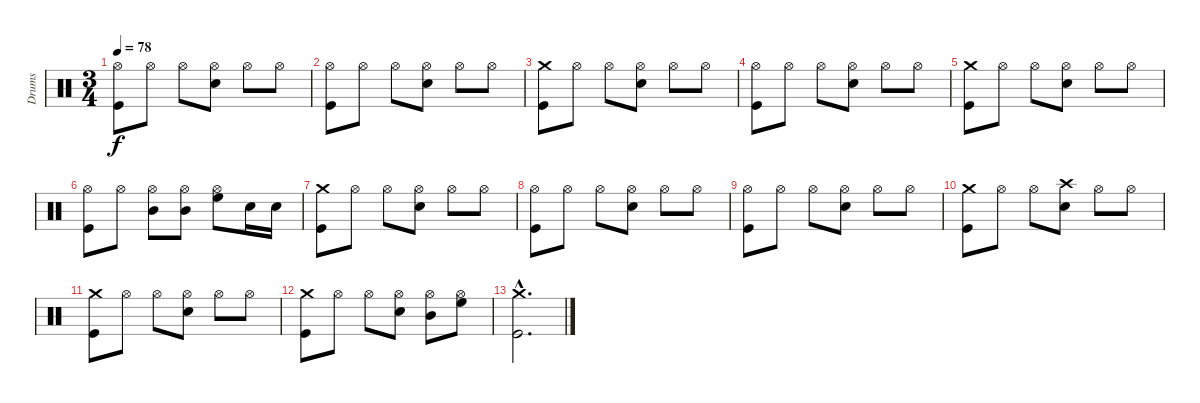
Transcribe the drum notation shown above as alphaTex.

\track ("Drums" "Drums") {instrument percussion}
\staff {score}
\articulation defaults
\ts (3 4)
\tempo 78
\clef neutral
\ks c
("Hi-Hat (open)" "Kick (hit)").8{dy f} "Hi-Hat (open)".8 "Hi-Hat (open)".8 ("Hi-Hat (open)" "Snare (hit) 2").8 "Hi-Hat (open)".8 "Hi-Hat (open)".8 |
("Hi-Hat (open)" "Kick (hit)").8 "Hi-Hat (open)".8 "Hi-Hat (open)".8 ("Hi-Hat (open)" "Snare (hit) 2").8 "Hi-Hat (open)".8 "Hi-Hat (open)".8 |
("Crash medium (hit)" "Kick (hit)").8 "Hi-Hat (open)".8 "Hi-Hat (open)".8 ("Hi-Hat (open)" "Snare (hit) 2").8 "Hi-Hat (open)".8 "Hi-Hat (open)".8 |
("Hi-Hat (open)" "Kick (hit)").8 "Hi-Hat (open)".8 "Hi-Hat (open)".8 ("Hi-Hat (open)" "Snare (hit) 2").8 "Hi-Hat (open)".8 "Hi-Hat (open)".8 |
("Crash medium (hit)" "Kick (hit)").8 "Hi-Hat (open)".8 "Hi-Hat (open)".8 ("Hi-Hat (open)" "Snare (hit) 2").8 "Hi-Hat (open)".8 "Hi-Hat (open)".8 |
("Hi-Hat (open)" "Kick (hit)").8 "Hi-Hat (open)".8 ("Hi-Hat (open)" "Mid Tom (hit)").8 ("Hi-Hat (open)" "Mid Tom (hit)").8 ("Hi-Hat (open)" "High Floor Tom (hit)").8 "Snare (hit) 2".16 "Snare (hit) 2".16 |
("Crash medium (hit)" "Kick (hit)").8 "Hi-Hat (open)".8 "Hi-Hat (open)".8 ("Hi-Hat (open)" "Snare (hit) 2").8 "Hi-Hat (open)".8 "Hi-Hat (open)".8 |
("Hi-Hat (open)" "Kick (hit)").8 "Hi-Hat (open)".8 "Hi-Hat (open)".8 ("Hi-Hat (open)" "Snare (hit) 2").8 "Hi-Hat (open)".8 "Hi-Hat (open)".8 |
("Hi-Hat (open)" "Kick (hit)").8 "Hi-Hat (open)".8 "Hi-Hat (open)".8 ("Hi-Hat (open)" "Snare (hit) 2").8 "Hi-Hat (open)".8 "Hi-Hat (open)".8 |
("Crash medium (hit)" "Kick (hit)").8 "Hi-Hat (open)".8 "Hi-Hat (open)".8 ("Crash high (hit)" "Snare (hit) 2").8 "Hi-Hat (open)".8 "Hi-Hat (open)".8 |
("Crash medium (hit)" "Kick (hit)").8 "Hi-Hat (open)".8 "Hi-Hat (open)".8 ("Hi-Hat (open)" "Snare (hit) 2").8 "Hi-Hat (open)".8 "Hi-Hat (open)".8 |
("Crash medium (hit)" "Kick (hit)").8 "Hi-Hat (open)".8 "Hi-Hat (open)".8 ("Hi-Hat (open)" "Snare (hit) 2").8 ("Hi-Hat (open)" "Mid Tom (hit)").8 ("Hi-Hat (open)" "High Floor Tom (hit)").8 |
("Crash medium (hit)"{hac} "Kick (hit)"{hac}).2{d}
